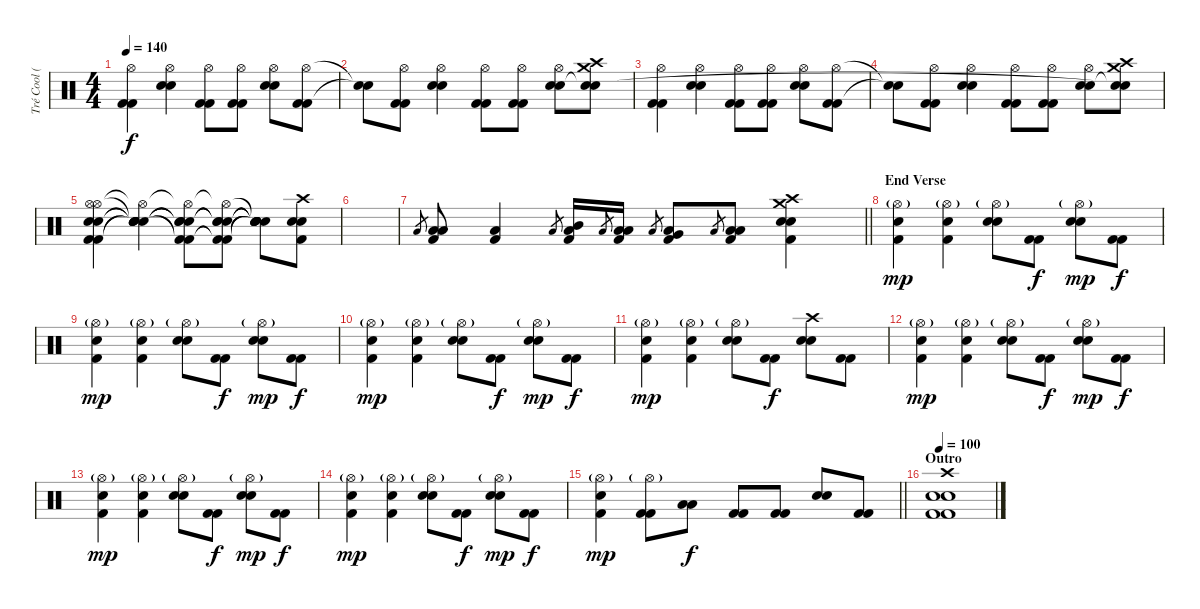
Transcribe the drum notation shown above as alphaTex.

\track ("Tré Cool (Drums)" "Tré Cool (") {instrument percussion}
\staff {score}
\articulation defaults
\ts (4 4)
\tempo 140
\clef neutral
\ks c
("Hi-Hat (open)" "Kick (hit) 2" "Kick (hit) 2").4{dy f} ("Hi-Hat (open)" "Electric Snare (hit)" "Electric Snare (hit)").4 ("Hi-Hat (open)" "Kick (hit) 2" "Kick (hit) 2").8 ("Hi-Hat (open)" "Kick (hit) 2" "Kick (hit) 2").8 ("Hi-Hat (open)" "Electric Snare (hit)" "Electric Snare (hit)").8 ("Hi-Hat (open)" "Kick (hit) 2" "Kick (hit) 2").8 |
("Snare (hit)"{t} "Snare (hit)"{t}).8 ("Hi-Hat (open)" "Kick (hit) 2" "Kick (hit) 2").8 ("Hi-Hat (open)" "Electric Snare (hit)" "Electric Snare (hit)").4 ("Hi-Hat (open)" "Kick (hit) 2" "Kick (hit) 2").8 ("Hi-Hat (open)" "Kick (hit) 2" "Kick (hit) 2").8 ("Hi-Hat (open)" "Electric Snare (hit)" "Electric Snare (hit)").8 ("Crash high (hit)" "Crash medium (hit)" "Snare (hit)"{t} "Snare (hit)"{t}).8 |
("Hi-Hat (open)" "Kick (hit) 2" "Kick (hit) 2").4 ("Hi-Hat (open)" "Electric Snare (hit)" "Electric Snare (hit)").4 ("Hi-Hat (open)" "Kick (hit) 2" "Kick (hit) 2").8 ("Hi-Hat (open)" "Kick (hit) 2" "Kick (hit) 2").8 ("Hi-Hat (open)" "Electric Snare (hit)" "Electric Snare (hit)").8 ("Hi-Hat (open)" "Kick (hit) 2" "Kick (hit) 2").8 |
("Snare (hit)"{t} "Snare (hit)"{t}).8 ("Hi-Hat (open)" "Kick (hit) 2" "Kick (hit) 2").8 ("Hi-Hat (open)" "Electric Snare (hit)" "Electric Snare (hit)").4 ("Hi-Hat (open)" "Kick (hit) 2" "Kick (hit) 2").8 ("Hi-Hat (open)" "Kick (hit) 2" "Kick (hit) 2").8 ("Hi-Hat (open)" "Electric Snare (hit)" "Electric Snare (hit)").8 ("Crash high (hit)" "Crash medium (hit)" "Snare (hit)"{t} "Snare (hit)"{t}).8 |
("Hi-Hat (open)" "Hi-Hat (open)" "Electric Snare (hit)" "Electric Snare (hit)" "Kick (hit) 2" "Kick (hit) 2").4 ("Hi-Hat (open)"{t} "Snare (hit)"{t} "Snare (hit)"{t} "Snare (hit)"{t} "Electric Snare (hit)"{t} "Electric Snare (hit)"{t}).4 ("Hi-Hat (open)"{t} "Snare (hit)"{t} "Snare (hit)"{t} "Snare (hit)"{t} "Kick (hit) 2"{t} "Kick (hit) 2"{t}).8 ("Hi-Hat (open)"{t} "Snare (hit)"{t} "Snare (hit)"{t} "Snare (hit)"{t} "Kick (hit) 2"{t} "Kick (hit) 2"{t}).8 ("Snare (hit)"{t} "Snare (hit)"{t} "Snare (hit)"{t} "Snare (hit)"{t} "Snare (hit)"{t} "Snare (hit)"{t}).8 ("Crash high (hit)" "Electric Snare (hit)" "Electric Snare (hit)" "Kick (hit) 2").8 |
|
\barLineRight lightlight "Low Tom (hit)".8{gr}
("Low Tom (hit)" "Low Tom (hit)" "Kick (hit) 2").8 ("Low Floor Tom (hit)" "Kick (hit) 2").4 "Low Tom (hit)".8{gr} ("Mid Tom (hit)" "Low Tom (hit)" "Kick (hit) 2").16 "Low Tom (hit)".8{gr} ("Low Tom (hit)" "Low Tom (hit)" "Kick (hit) 2").16 "Low Tom (hit)".8{gr} ("Very Low Tom (hit)" "Low Tom (hit)" "Kick (hit) 2").8 "Low Tom (hit)".8{gr} ("Low Floor Tom (hit)" "Low Tom (hit)" "Kick (hit) 2").8 ("Crash high (hit)" "Electric Snare (hit)" "Electric Snare (hit)" "Crash medium (hit)" "Kick (hit) 2").4 |
\section ("" "End Verse")
("Hi-Hat (open)"{g} "Electric Snare (hit)" "Kick (hit) 2").4{dy mp} ("Hi-Hat (open)"{g} "Electric Snare (hit)" "Kick (hit) 2").4 ("Hi-Hat (open)"{g} "Electric Snare (hit)" "Electric Snare (hit)").8 ("Kick (hit) 2" "Kick (hit) 2").8{dy f} ("Hi-Hat (open)"{g} "Electric Snare (hit)" "Electric Snare (hit)").8{dy mp} ("Kick (hit) 2" "Kick (hit) 2").8{dy f} |
("Hi-Hat (open)"{g} "Electric Snare (hit)" "Kick (hit) 2").4{dy mp} ("Hi-Hat (open)"{g} "Electric Snare (hit)" "Kick (hit) 2").4 ("Hi-Hat (open)"{g} "Electric Snare (hit)" "Electric Snare (hit)").8 ("Kick (hit) 2" "Kick (hit) 2").8{dy f} ("Hi-Hat (open)"{g} "Electric Snare (hit)" "Electric Snare (hit)").8{dy mp} ("Kick (hit) 2" "Kick (hit) 2").8{dy f} |
("Hi-Hat (open)"{g} "Electric Snare (hit)" "Kick (hit) 2").4{dy mp} ("Hi-Hat (open)"{g} "Electric Snare (hit)" "Kick (hit) 2").4 ("Hi-Hat (open)"{g} "Electric Snare (hit)" "Electric Snare (hit)").8 ("Kick (hit) 2" "Kick (hit) 2").8{dy f} ("Hi-Hat (open)"{g} "Electric Snare (hit)" "Electric Snare (hit)").8{dy mp} ("Kick (hit) 2" "Kick (hit) 2").8{dy f} |
("Hi-Hat (open)"{g} "Electric Snare (hit)" "Kick (hit) 2").4{dy mp} ("Hi-Hat (open)"{g} "Electric Snare (hit)" "Kick (hit) 2").4 ("Hi-Hat (open)"{g} "Electric Snare (hit)" "Electric Snare (hit)").8 ("Kick (hit) 2" "Kick (hit) 2").8{dy f} ("Crash high (hit)" "Electric Snare (hit)" "Electric Snare (hit)").8 ("Kick (hit) 2" "Kick (hit) 2").8 |
("Hi-Hat (open)"{g} "Electric Snare (hit)" "Kick (hit) 2").4{dy mp} ("Hi-Hat (open)"{g} "Electric Snare (hit)" "Kick (hit) 2").4 ("Hi-Hat (open)"{g} "Electric Snare (hit)" "Electric Snare (hit)").8 ("Kick (hit) 2" "Kick (hit) 2").8{dy f} ("Hi-Hat (open)"{g} "Electric Snare (hit)" "Electric Snare (hit)").8{dy mp} ("Kick (hit) 2" "Kick (hit) 2").8{dy f} |
("Hi-Hat (open)"{g} "Electric Snare (hit)" "Kick (hit) 2").4{dy mp} ("Hi-Hat (open)"{g} "Electric Snare (hit)" "Kick (hit) 2").4 ("Hi-Hat (open)"{g} "Electric Snare (hit)" "Electric Snare (hit)").8 ("Kick (hit) 2" "Kick (hit) 2").8{dy f} ("Hi-Hat (open)"{g} "Electric Snare (hit)" "Electric Snare (hit)").8{dy mp} ("Kick (hit) 2" "Kick (hit) 2").8{dy f} |
("Hi-Hat (open)"{g} "Electric Snare (hit)" "Kick (hit) 2").4{dy mp} ("Hi-Hat (open)"{g} "Electric Snare (hit)" "Kick (hit) 2").4 ("Hi-Hat (open)"{g} "Electric Snare (hit)" "Electric Snare (hit)").8 ("Kick (hit) 2" "Kick (hit) 2").8{dy f} ("Hi-Hat (open)"{g} "Electric Snare (hit)" "Electric Snare (hit)").8{dy mp} ("Kick (hit) 2" "Kick (hit) 2").8{dy f} |
\barLineRight lightlight
("Hi-Hat (open)"{g} "Electric Snare (hit)" "Kick (hit) 2").4{dy mp} ("Hi-Hat (open)"{g} "Kick (hit) 2" "Kick (hit) 2").8 ("Low Tom (hit)" "Low Tom (hit)").8{dy f} ("Kick (hit) 2" "Kick (hit) 2").8 ("Kick (hit) 2" "Kick (hit) 2").8 ("Electric Snare (hit)" "Electric Snare (hit)").8 ("Kick (hit) 2" "Kick (hit) 2").8 |
\section ("" "Outro")
\tempo 100
("Crash high (hit)" "Electric Snare (hit)" "Electric Snare (hit)" "Kick (hit) 2" "Kick (hit) 2").1{volume 0}
